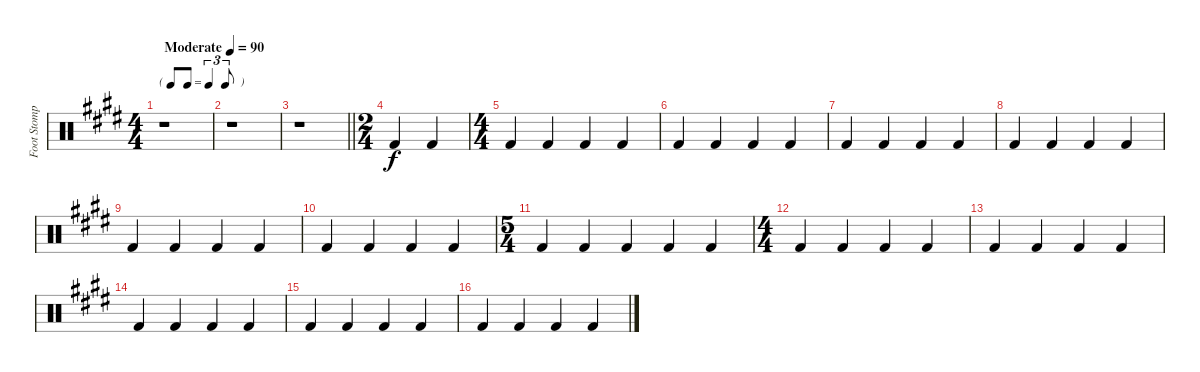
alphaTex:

\track ("Foot Stomp" "Foot Stomp") {instrument percussion}
\staff {score}
\articulation defaults
\ts (4 4)
\tf triplet8th
\tempo (90 "Moderate")
\clef neutral
\ks e
r.1{dy f} |
r.1 |
\barLineRight lightlight
r.1 |
\ts (2 4)
"Kick (hit) 2".4 "Kick (hit) 2".4 |
\ts (4 4)
"Kick (hit) 2".4 "Kick (hit) 2".4 "Kick (hit) 2".4 "Kick (hit) 2".4 |
"Kick (hit) 2".4 "Kick (hit) 2".4 "Kick (hit) 2".4 "Kick (hit) 2".4 |
"Kick (hit) 2".4 "Kick (hit) 2".4 "Kick (hit) 2".4 "Kick (hit) 2".4 |
"Kick (hit) 2".4 "Kick (hit) 2".4 "Kick (hit) 2".4 "Kick (hit) 2".4 |
"Kick (hit) 2".4 "Kick (hit) 2".4 "Kick (hit) 2".4 "Kick (hit) 2".4 |
"Kick (hit) 2".4 "Kick (hit) 2".4 "Kick (hit) 2".4 "Kick (hit) 2".4 |
\ts (5 4)
"Kick (hit) 2".4 "Kick (hit) 2".4 "Kick (hit) 2".4 "Kick (hit) 2".4 "Kick (hit) 2".4 |
\ts (4 4)
"Kick (hit) 2".4 "Kick (hit) 2".4 "Kick (hit) 2".4 "Kick (hit) 2".4 |
"Kick (hit) 2".4 "Kick (hit) 2".4 "Kick (hit) 2".4 "Kick (hit) 2".4 |
"Kick (hit) 2".4 "Kick (hit) 2".4 "Kick (hit) 2".4 "Kick (hit) 2".4 |
"Kick (hit) 2".4 "Kick (hit) 2".4 "Kick (hit) 2".4 "Kick (hit) 2".4 |
"Kick (hit) 2".4 "Kick (hit) 2".4 "Kick (hit) 2".4 "Kick (hit) 2".4
